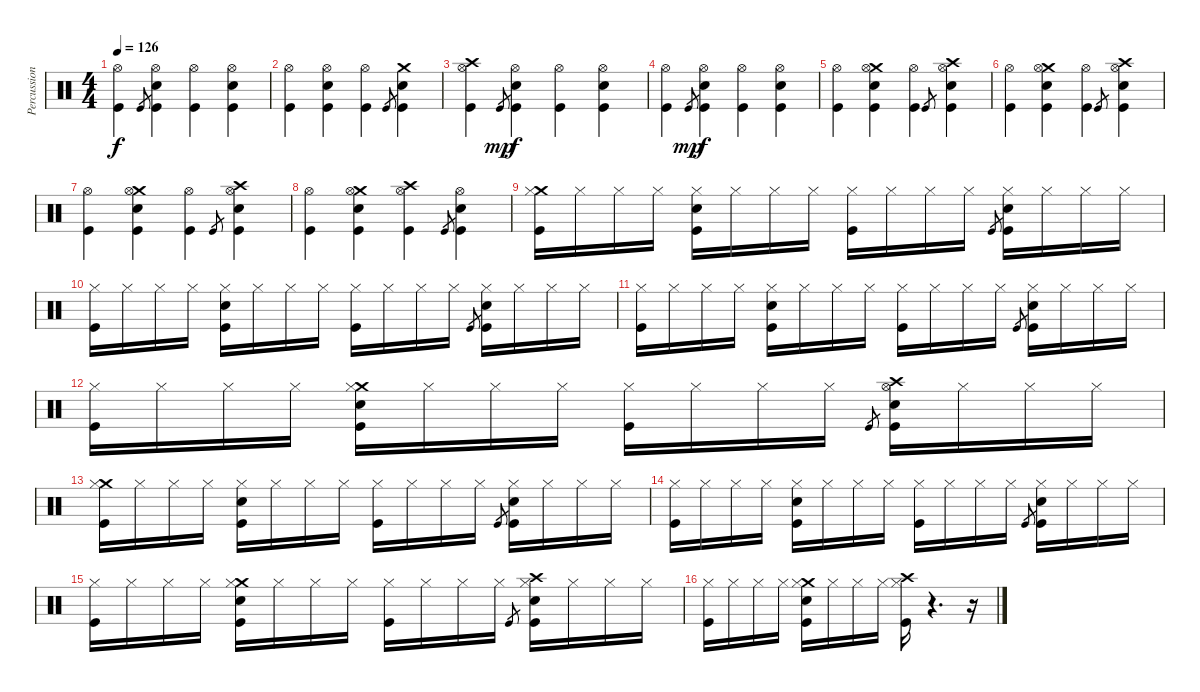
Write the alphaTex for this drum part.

\track ("Percussion" "Percussion") {instrument percussion}
\staff {score}
\articulation defaults
\ts (4 4)
\tempo 126
\clef neutral
\ks c
("Hi-Hat (open)" "Kick (hit)").4{dy f} "Kick (hit)".8{gr} ("Hi-Hat (open)" "Snare (hit) 2" "Kick (hit)").4 ("Hi-Hat (open)" "Kick (hit)").4 ("Hi-Hat (open)" "Snare (hit) 2" "Kick (hit)").4 |
("Hi-Hat (open)" "Kick (hit)").4 ("Hi-Hat (open)" "Snare (hit) 2" "Kick (hit)").4 ("Hi-Hat (open)" "Kick (hit)").4 "Kick (hit)".8{gr} ("Crash medium (hit)" "Snare (hit) 2" "Kick (hit)").4 |
("Crash high (hit)" "Hi-Hat (open)" "Kick (hit)").4 "Kick (hit)".8{gr dy mp} ("Hi-Hat (open)" "Snare (hit) 2" "Kick (hit)").4{dy f} ("Hi-Hat (open)" "Kick (hit)").4 ("Hi-Hat (open)" "Snare (hit) 2" "Kick (hit)").4 |
("Hi-Hat (open)" "Kick (hit)").4 "Kick (hit)".8{gr dy mp} ("Hi-Hat (open)" "Snare (hit) 2" "Kick (hit)").4{dy f} ("Hi-Hat (open)" "Kick (hit)").4 ("Hi-Hat (open)" "Snare (hit) 2" "Kick (hit)").4 |
("Hi-Hat (open)" "Kick (hit)").4 ("Crash medium (hit)" "Hi-Hat (open)" "Snare (hit) 2" "Kick (hit)").4 ("Hi-Hat (open)" "Kick (hit)").4 "Kick (hit)".8{gr} ("Crash high (hit)" "Hi-Hat (open)" "Snare (hit) 2" "Kick (hit)").4 |
("Hi-Hat (open)" "Kick (hit)").4 ("Crash medium (hit)" "Hi-Hat (open)" "Snare (hit) 2" "Kick (hit)").4 ("Hi-Hat (open)" "Kick (hit)").4 "Kick (hit)".8{gr} ("Crash high (hit)" "Hi-Hat (open)" "Snare (hit) 2" "Kick (hit)").4 |
("Hi-Hat (open)" "Kick (hit)").4 ("Crash medium (hit)" "Hi-Hat (open)" "Snare (hit) 2" "Kick (hit)").4 ("Hi-Hat (open)" "Kick (hit)").4 "Kick (hit)".8{gr} ("Crash high (hit)" "Hi-Hat (open)" "Snare (hit) 2" "Kick (hit)").4 |
("Hi-Hat (open)" "Kick (hit)").4 ("Crash medium (hit)" "Hi-Hat (open)" "Snare (hit) 2" "Kick (hit)").4 ("Crash high (hit)" "Hi-Hat (open)" "Kick (hit)").4 "Kick (hit)".8{gr} ("Hi-Hat (open)" "Snare (hit) 2" "Kick (hit)").4 |
("Crash medium (hit)" "Hi-Hat (closed)" "Kick (hit)").16 "Hi-Hat (closed)".16 "Hi-Hat (closed)".16 "Hi-Hat (closed)".16 ("Hi-Hat (closed)" "Snare (hit) 2" "Kick (hit)").16 "Hi-Hat (closed)".16 "Hi-Hat (closed)".16 "Hi-Hat (closed)".16 ("Hi-Hat (closed)" "Kick (hit)").16 "Hi-Hat (closed)".16 "Hi-Hat (closed)".16 "Hi-Hat (closed)".16 "Kick (hit)".8{gr} ("Hi-Hat (closed)" "Snare (hit) 2" "Kick (hit)").16 "Hi-Hat (closed)".16 "Hi-Hat (closed)".16 "Hi-Hat (closed)".16 |
("Hi-Hat (closed)" "Kick (hit)").16 "Hi-Hat (closed)".16 "Hi-Hat (closed)".16 "Hi-Hat (closed)".16 ("Hi-Hat (closed)" "Snare (hit) 2" "Kick (hit)").16 "Hi-Hat (closed)".16 "Hi-Hat (closed)".16 "Hi-Hat (closed)".16 ("Hi-Hat (closed)" "Kick (hit)").16 "Hi-Hat (closed)".16 "Hi-Hat (closed)".16 "Hi-Hat (closed)".16 "Kick (hit)".8{gr} ("Hi-Hat (closed)" "Snare (hit) 2" "Kick (hit)").16 "Hi-Hat (closed)".16 "Hi-Hat (closed)".16 "Hi-Hat (closed)".16 |
("Hi-Hat (closed)" "Kick (hit)").16 "Hi-Hat (closed)".16 "Hi-Hat (closed)".16 "Hi-Hat (closed)".16 ("Hi-Hat (closed)" "Snare (hit) 2" "Kick (hit)").16 "Hi-Hat (closed)".16 "Hi-Hat (closed)".16 "Hi-Hat (closed)".16 ("Hi-Hat (closed)" "Kick (hit)").16 "Hi-Hat (closed)".16 "Hi-Hat (closed)".16 "Hi-Hat (closed)".16 "Kick (hit)".8{gr} ("Hi-Hat (closed)" "Snare (hit) 2" "Kick (hit)").16 "Hi-Hat (closed)".16 "Hi-Hat (closed)".16 "Hi-Hat (closed)".16 |
("Hi-Hat (closed)" "Kick (hit)").16 "Hi-Hat (closed)".16 "Hi-Hat (closed)".16 "Hi-Hat (closed)".16 ("Crash medium (hit)" "Hi-Hat (closed)" "Snare (hit) 2" "Kick (hit)").16 "Hi-Hat (closed)".16 "Hi-Hat (closed)".16 "Hi-Hat (closed)".16 ("Hi-Hat (closed)" "Kick (hit)").16 "Hi-Hat (closed)".16 "Hi-Hat (closed)".16 "Hi-Hat (closed)".16 "Kick (hit)".8{gr} ("Crash high (hit)" "Hi-Hat (open)" "Snare (hit) 2" "Kick (hit)").16 "Hi-Hat (closed)".16 "Hi-Hat (closed)".16 "Hi-Hat (closed)".16 |
("Crash medium (hit)" "Hi-Hat (closed)" "Kick (hit)").16 "Hi-Hat (closed)".16 "Hi-Hat (closed)".16 "Hi-Hat (closed)".16 ("Hi-Hat (closed)" "Snare (hit) 2" "Kick (hit)").16 "Hi-Hat (closed)".16 "Hi-Hat (closed)".16 "Hi-Hat (closed)".16 ("Hi-Hat (closed)" "Kick (hit)").16 "Hi-Hat (closed)".16 "Hi-Hat (closed)".16 "Hi-Hat (closed)".16 "Kick (hit)".8{gr} ("Hi-Hat (closed)" "Snare (hit) 2" "Kick (hit)").16 "Hi-Hat (closed)".16 "Hi-Hat (closed)".16 "Hi-Hat (closed)".16 |
("Hi-Hat (closed)" "Kick (hit)").16 "Hi-Hat (closed)".16 "Hi-Hat (closed)".16 "Hi-Hat (closed)".16 ("Hi-Hat (closed)" "Snare (hit) 2" "Kick (hit)").16 "Hi-Hat (closed)".16 "Hi-Hat (closed)".16 "Hi-Hat (closed)".16 ("Hi-Hat (closed)" "Kick (hit)").16 "Hi-Hat (closed)".16 "Hi-Hat (closed)".16 "Hi-Hat (closed)".16 "Kick (hit)".8{gr} ("Hi-Hat (closed)" "Snare (hit) 2" "Kick (hit)").16 "Hi-Hat (closed)".16 "Hi-Hat (closed)".16 "Hi-Hat (closed)".16 |
("Hi-Hat (closed)" "Kick (hit)").16 "Hi-Hat (closed)".16 "Hi-Hat (closed)".16 "Hi-Hat (closed)".16 ("Crash medium (hit)" "Hi-Hat (closed)" "Snare (hit) 2" "Kick (hit)").16 "Hi-Hat (closed)".16 "Hi-Hat (closed)".16 "Hi-Hat (closed)".16 ("Hi-Hat (closed)" "Kick (hit)").16 "Hi-Hat (closed)".16 "Hi-Hat (closed)".16 "Hi-Hat (closed)".16 "Kick (hit)".8{gr} ("Crash high (hit)" "Hi-Hat (closed)" "Snare (hit) 2" "Kick (hit)").16 "Hi-Hat (closed)".16 "Hi-Hat (closed)".16 "Hi-Hat (closed)".16 |
("Hi-Hat (closed)" "Kick (hit)").16 "Hi-Hat (closed)".16 "Hi-Hat (closed)".16 "Hi-Hat (closed)".16 ("Crash medium (hit)" "Hi-Hat (closed)" "Snare (hit) 2" "Kick (hit)").16 "Hi-Hat (closed)".16 "Hi-Hat (closed)".16 "Hi-Hat (closed)".16 ("Crash high (hit)" "Hi-Hat (closed)" "Kick (hit)").16 r.4{d} r.16
